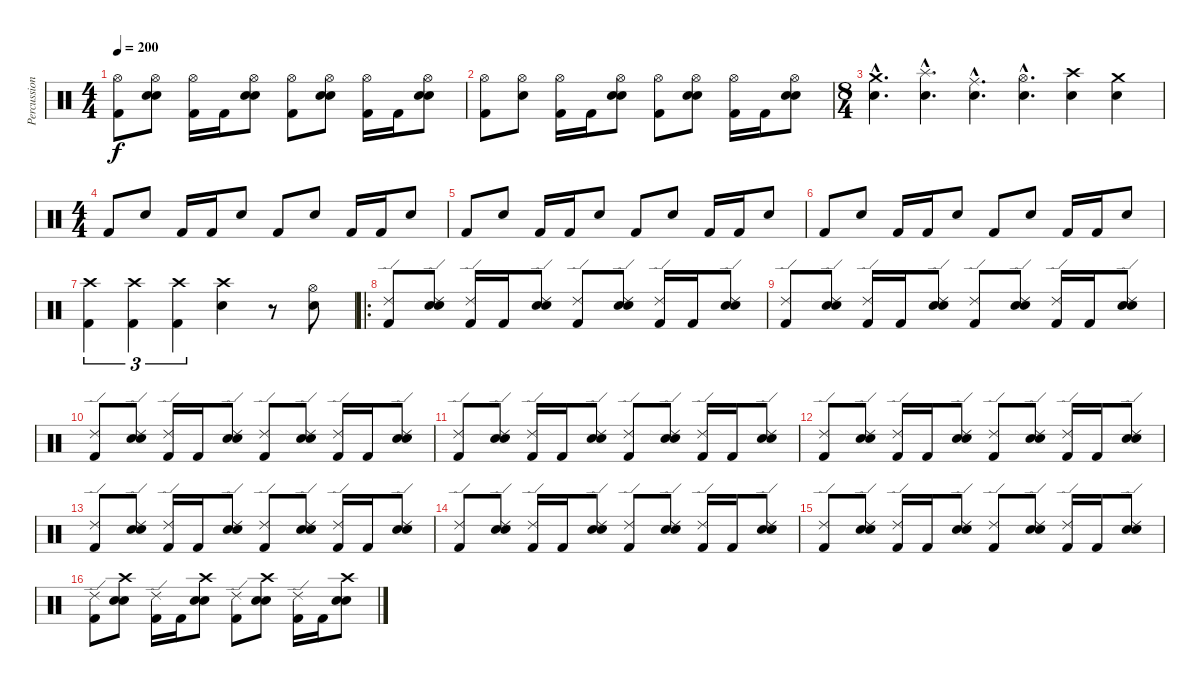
\track ("Percussion" "Percussion") {instrument percussion}
\staff {score}
\articulation defaults
\ts (4 4)
\tempo 200
\clef neutral
\ks c
("Hi-Hat (open)" "Kick (hit) 2").8{dy f} ("Hi-Hat (open)" "Electric Snare (hit)" "Electric Snare (hit)").8 ("Hi-Hat (open)" "Kick (hit) 2").16 "Kick (hit) 2".16 ("Hi-Hat (open)" "Electric Snare (hit)" "Electric Snare (hit)").8 ("Hi-Hat (open)" "Kick (hit) 2").8 ("Hi-Hat (open)" "Electric Snare (hit)" "Electric Snare (hit)").8 ("Hi-Hat (open)" "Kick (hit) 2").16 "Kick (hit) 2".16 ("Hi-Hat (open)" "Electric Snare (hit)" "Electric Snare (hit)").8 |
("Hi-Hat (open)" "Kick (hit) 2").8 ("Hi-Hat (open)" "Electric Snare (hit)").8 ("Hi-Hat (open)" "Kick (hit) 2").16 "Kick (hit) 2".16 ("Hi-Hat (open)" "Electric Snare (hit)" "Electric Snare (hit)").8 ("Hi-Hat (open)" "Kick (hit) 2").8 ("Hi-Hat (open)" "Electric Snare (hit)" "Electric Snare (hit)").8 ("Hi-Hat (open)" "Kick (hit) 2").16 "Kick (hit) 2".16 ("Hi-Hat (open)" "Electric Snare (hit)" "Electric Snare (hit)").8 |
\ts (8 4)
("Crash medium (hit)"{hac} "Electric Snare (hit)"{hac}).4{d} ("Splash (hit)"{hac} "Electric Snare (hit)"{hac}).4{d} ("Ride (middle)"{hac} "Electric Snare (hit)"{hac}).4{d} ("Hi-Hat (open)"{hac} "Electric Snare (hit)"{hac}).4{d} ("Crash high (hit)" "Electric Snare (hit)").4 ("Crash medium (hit)" "Electric Snare (hit)").4 |
\ts (4 4)
"Kick (hit) 2".8 "Electric Snare (hit)".8 "Kick (hit) 2".16 "Kick (hit) 2".16 "Electric Snare (hit)".8 "Kick (hit) 2".8 "Electric Snare (hit)".8 "Kick (hit) 2".16 "Kick (hit) 2".16 "Electric Snare (hit)".8 |
"Kick (hit) 2".8 "Electric Snare (hit)".8 "Kick (hit) 2".16 "Kick (hit) 2".16 "Electric Snare (hit)".8 "Kick (hit) 2".8 "Electric Snare (hit)".8 "Kick (hit) 2".16 "Kick (hit) 2".16 "Electric Snare (hit)".8 |
"Kick (hit) 2".8 "Electric Snare (hit)".8 "Kick (hit) 2".16 "Kick (hit) 2".16 "Electric Snare (hit)".8 "Kick (hit) 2".8 "Electric Snare (hit)".8 "Kick (hit) 2".16 "Kick (hit) 2".16 "Electric Snare (hit)".8 |
("Crash high (hit)" "Kick (hit) 2").4{tu (3 2)} ("Crash high (hit)" "Kick (hit) 2").4{tu (3 2)} ("Crash high (hit)" "Kick (hit) 2").4{tu (3 2)} ("Crash high (hit)" "Electric Snare (hit)").4 r.8 ("Hi-Hat (open)" "Electric Snare (hit)").8 |
\ro
("Ride (edge) 2" "Kick (hit) 2").8 ("Ride (edge) 2" "Electric Snare (hit)" "Electric Snare (hit)").8 ("Ride (edge) 2" "Kick (hit) 2").16 "Kick (hit) 2".16 ("Ride (edge) 2" "Electric Snare (hit)" "Electric Snare (hit)").8 ("Ride (edge) 2" "Kick (hit) 2").8 ("Ride (edge) 2" "Electric Snare (hit)" "Electric Snare (hit)").8 ("Ride (edge) 2" "Kick (hit) 2").16 "Kick (hit) 2".16 ("Ride (edge) 2" "Electric Snare (hit)" "Electric Snare (hit)").8 |
("Ride (edge) 2" "Kick (hit) 2").8 ("Ride (edge) 2" "Electric Snare (hit)" "Electric Snare (hit)").8 ("Ride (edge) 2" "Kick (hit) 2").16 "Kick (hit) 2".16 ("Ride (edge) 2" "Electric Snare (hit)" "Electric Snare (hit)").8 ("Ride (edge) 2" "Kick (hit) 2").8 ("Ride (edge) 2" "Electric Snare (hit)" "Electric Snare (hit)").8 ("Ride (edge) 2" "Kick (hit) 2").16 "Kick (hit) 2".16 ("Ride (edge) 2" "Electric Snare (hit)" "Electric Snare (hit)").8 |
("Ride (edge) 2" "Kick (hit) 2").8 ("Ride (edge) 2" "Electric Snare (hit)" "Electric Snare (hit)").8 ("Ride (edge) 2" "Kick (hit) 2").16 "Kick (hit) 2".16 ("Ride (edge) 2" "Electric Snare (hit)" "Electric Snare (hit)").8 ("Ride (edge) 2" "Kick (hit) 2").8 ("Ride (edge) 2" "Electric Snare (hit)" "Electric Snare (hit)").8 ("Ride (edge) 2" "Kick (hit) 2").16 "Kick (hit) 2".16 ("Ride (edge) 2" "Electric Snare (hit)" "Electric Snare (hit)").8 |
("Ride (edge) 2" "Kick (hit) 2").8 ("Ride (edge) 2" "Electric Snare (hit)" "Electric Snare (hit)").8 ("Ride (edge) 2" "Kick (hit) 2").16 "Kick (hit) 2".16 ("Ride (edge) 2" "Electric Snare (hit)" "Electric Snare (hit)").8 ("Ride (edge) 2" "Kick (hit) 2").8 ("Ride (edge) 2" "Electric Snare (hit)" "Electric Snare (hit)").8 ("Ride (edge) 2" "Kick (hit) 2").16 "Kick (hit) 2".16 ("Ride (edge) 2" "Electric Snare (hit)" "Electric Snare (hit)").8 |
("Ride (edge) 2" "Kick (hit) 2").8 ("Ride (edge) 2" "Electric Snare (hit)" "Electric Snare (hit)").8 ("Ride (edge) 2" "Kick (hit) 2").16 "Kick (hit) 2".16 ("Ride (edge) 2" "Electric Snare (hit)" "Electric Snare (hit)").8 ("Ride (edge) 2" "Kick (hit) 2").8 ("Ride (edge) 2" "Electric Snare (hit)" "Electric Snare (hit)").8 ("Ride (edge) 2" "Kick (hit) 2").16 "Kick (hit) 2".16 ("Ride (edge) 2" "Electric Snare (hit)" "Electric Snare (hit)").8 |
("Ride (edge) 2" "Kick (hit) 2").8 ("Ride (edge) 2" "Electric Snare (hit)" "Electric Snare (hit)").8 ("Ride (edge) 2" "Kick (hit) 2").16 "Kick (hit) 2".16 ("Ride (edge) 2" "Electric Snare (hit)" "Electric Snare (hit)").8 ("Ride (edge) 2" "Kick (hit) 2").8 ("Ride (edge) 2" "Electric Snare (hit)" "Electric Snare (hit)").8 ("Ride (edge) 2" "Kick (hit) 2").16 "Kick (hit) 2".16 ("Ride (edge) 2" "Electric Snare (hit)" "Electric Snare (hit)").8 |
("Ride (edge) 2" "Kick (hit) 2").8 ("Ride (edge) 2" "Electric Snare (hit)" "Electric Snare (hit)").8 ("Ride (edge) 2" "Kick (hit) 2").16 "Kick (hit) 2".16 ("Ride (edge) 2" "Electric Snare (hit)" "Electric Snare (hit)").8 ("Ride (edge) 2" "Kick (hit) 2").8 ("Ride (edge) 2" "Electric Snare (hit)" "Electric Snare (hit)").8 ("Ride (edge) 2" "Kick (hit) 2").16 "Kick (hit) 2".16 ("Ride (edge) 2" "Electric Snare (hit)" "Electric Snare (hit)").8 |
("Ride (edge) 2" "Kick (hit) 2").8 ("Ride (edge) 2" "Electric Snare (hit)" "Electric Snare (hit)").8 ("Ride (edge) 2" "Kick (hit) 2").16 "Kick (hit) 2".16 ("Ride (edge) 2" "Electric Snare (hit)" "Electric Snare (hit)").8 ("Ride (edge) 2" "Kick (hit) 2").8 ("Ride (edge) 2" "Electric Snare (hit)" "Electric Snare (hit)").8 ("Ride (edge) 2" "Kick (hit) 2").16 "Kick (hit) 2".16 ("Ride (edge) 2" "Electric Snare (hit)" "Electric Snare (hit)").8 |
("Ride (edge) 2" "Kick (hit) 2").8 ("Crash high (hit)" "Electric Snare (hit)" "Electric Snare (hit)").8 ("Ride (edge) 2" "Kick (hit) 2").16 "Kick (hit) 2".16 ("Crash high (hit)" "Electric Snare (hit)" "Electric Snare (hit)").8 ("Ride (edge) 2" "Kick (hit) 2").8 ("Crash high (hit)" "Electric Snare (hit)" "Electric Snare (hit)").8 ("Ride (edge) 2" "Kick (hit) 2").16 "Kick (hit) 2".16 ("Crash high (hit)" "Electric Snare (hit)" "Electric Snare (hit)").8
